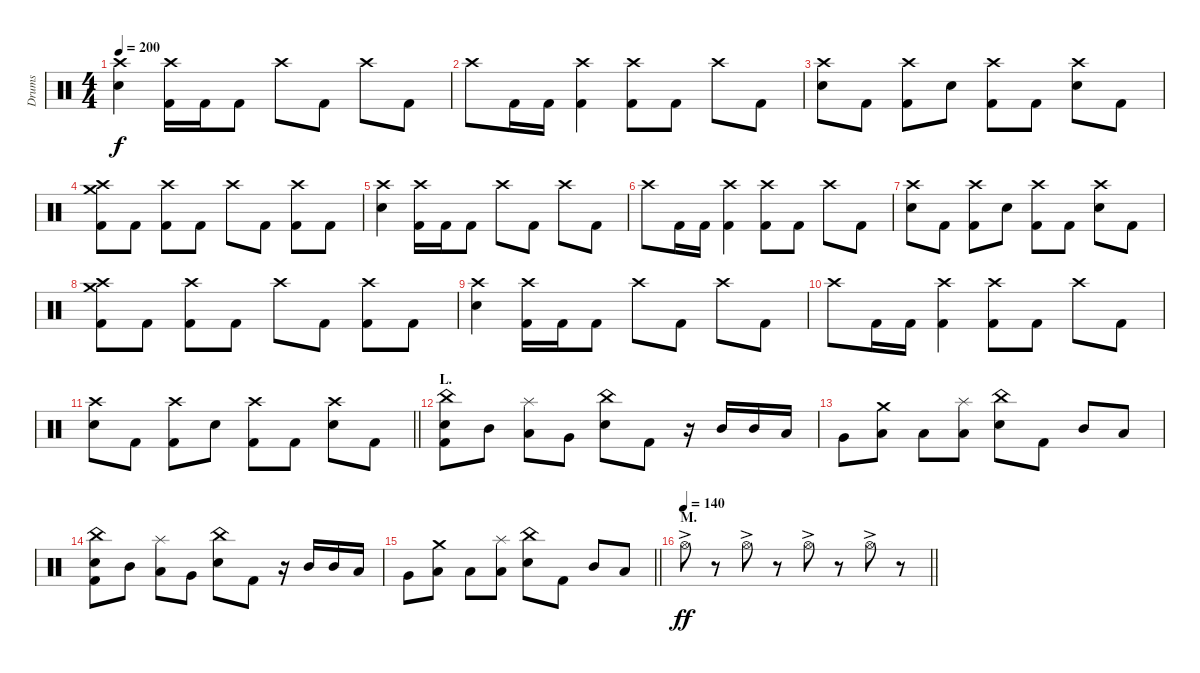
\track ("Drums" "Drums") {instrument percussion}
\staff {score}
\articulation defaults
\ts (4 4)
\tempo 200
\clef neutral
\ks c
("Crash high (hit)" "Electric Snare (hit)").4{dy f} ("Crash high (hit)" "Kick (hit) 2").16 "Kick (hit) 2".16 "Kick (hit) 2".8 "Crash high (hit)".8 "Kick (hit) 2".8 "Crash high (hit)".8 "Kick (hit) 2".8 |
"Crash high (hit)".8 "Kick (hit) 2".16 "Kick (hit) 2".16 ("Crash high (hit)" "Kick (hit) 2").4 ("Crash high (hit)" "Kick (hit) 2").8 "Kick (hit) 2".8 "Crash high (hit)".8 "Kick (hit) 2".8 |
("Crash high (hit)" "Electric Snare (hit)").8 "Kick (hit) 2".8 ("Crash high (hit)" "Kick (hit) 2").8 "Electric Snare (hit)".8 ("Crash high (hit)" "Kick (hit) 2").8 "Kick (hit) 2".8 ("Crash high (hit)" "Electric Snare (hit)").8 "Kick (hit) 2".8 |
("Crash medium (hit)" "Crash high (hit)" "Kick (hit) 2").8 "Kick (hit) 2".8 ("Crash high (hit)" "Kick (hit) 2").8 "Kick (hit) 2".8 "Crash high (hit)".8 "Kick (hit) 2".8 ("Crash high (hit)" "Kick (hit) 2").8 "Kick (hit) 2".8 |
("Crash high (hit)" "Electric Snare (hit)").4 ("Crash high (hit)" "Kick (hit) 2").16 "Kick (hit) 2".16 "Kick (hit) 2".8 "Crash high (hit)".8 "Kick (hit) 2".8 "Crash high (hit)".8 "Kick (hit) 2".8 |
"Crash high (hit)".8 "Kick (hit) 2".16 "Kick (hit) 2".16 ("Crash high (hit)" "Kick (hit) 2").4 ("Crash high (hit)" "Kick (hit) 2").8 "Kick (hit) 2".8 "Crash high (hit)".8 "Kick (hit) 2".8 |
("Crash high (hit)" "Electric Snare (hit)").8 "Kick (hit) 2".8 ("Crash high (hit)" "Kick (hit) 2").8 "Electric Snare (hit)".8 ("Crash high (hit)" "Kick (hit) 2").8 "Kick (hit) 2".8 ("Crash high (hit)" "Electric Snare (hit)").8 "Kick (hit) 2".8 |
("Crash medium (hit)" "Crash high (hit)" "Kick (hit) 2").8 "Kick (hit) 2".8 ("Crash high (hit)" "Kick (hit) 2").8 "Kick (hit) 2".8 "Crash high (hit)".8 "Kick (hit) 2".8 ("Crash high (hit)" "Kick (hit) 2").8 "Kick (hit) 2".8 |
("Crash high (hit)" "Electric Snare (hit)").4 ("Crash high (hit)" "Kick (hit) 2").16 "Kick (hit) 2".16 "Kick (hit) 2".8 "Crash high (hit)".8 "Kick (hit) 2".8 "Crash high (hit)".8 "Kick (hit) 2".8 |
"Crash high (hit)".8 "Kick (hit) 2".16 "Kick (hit) 2".16 ("Crash high (hit)" "Kick (hit) 2").4 ("Crash high (hit)" "Kick (hit) 2").8 "Kick (hit) 2".8 "Crash high (hit)".8 "Kick (hit) 2".8 |
\barLineRight lightlight
("Crash high (hit)" "Electric Snare (hit)").8 "Kick (hit) 2".8 ("Crash high (hit)" "Kick (hit) 2").8 "Electric Snare (hit)".8 ("Crash high (hit)" "Kick (hit) 2").8 "Kick (hit) 2".8 ("Crash high (hit)" "Electric Snare (hit)").8 "Kick (hit) 2".8 |
\section ("" "L.")
("China (hit)" "Electric Snare (hit)" "Kick (hit) 2").8 "Mid Tom (hit)".8 ("Splash (hit)" "Low Tom (hit)").8 "Very Low Tom (hit)".8 ("China (hit)" "Electric Snare (hit)").8 "Kick (hit) 2".8 r.16 "Mid Tom (hit)".16 "Mid Tom (hit)".16 "Low Tom (hit)".16 |
"Very Low Tom (hit)".8 ("Crash medium (hit)" "Low Floor Tom (hit)").8 "Low Tom (hit)".8 ("Splash (hit)" "Low Floor Tom (hit)").8 ("China (hit)" "Electric Snare (hit)").8 "Kick (hit) 2".8 "Mid Tom (hit)".8 "Low Tom (hit)".8 |
("China (hit)" "Electric Snare (hit)" "Kick (hit) 2").8 "Mid Tom (hit)".8 ("Splash (hit)" "Low Tom (hit)").8 "Very Low Tom (hit)".8 ("China (hit)" "Electric Snare (hit)").8 "Kick (hit) 2".8 r.16 "Mid Tom (hit)".16 "Mid Tom (hit)".16 "Low Tom (hit)".16 |
\barLineRight lightlight "Very Low Tom (hit)".8
("Crash medium (hit)" "Low Floor Tom (hit)").8 "Low Tom (hit)".8 ("Splash (hit)" "Low Floor Tom (hit)").8 ("China (hit)" "Electric Snare (hit)").8 "Kick (hit) 2".8 "Mid Tom (hit)".8 "Low Tom (hit)".8 |
\section ("" "M.")
\tempo 140
\barLineRight lightlight "Hi-Hat (open)"{ac}.8{dy ff}
r.8 "Hi-Hat (open)"{ac}.8 r.8 "Hi-Hat (open)"{ac}.8 r.8 "Hi-Hat (open)"{ac}.8 r.8
